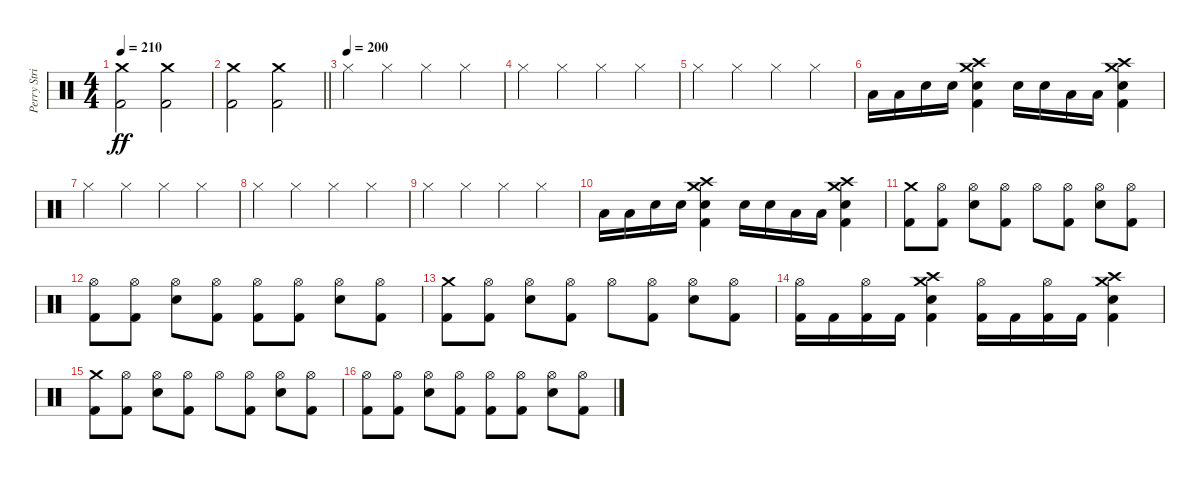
\track ("Perry Strickland" "Perry Stri") {instrument percussion}
\staff {score}
\articulation defaults
\ts (4 4)
\tempo 210
\clef neutral
\ks c
("Crash medium (hit)" "Kick (hit) 2").2{dy ff} ("Crash medium (hit)" "Kick (hit) 2").2 |
\barLineRight lightlight
("Crash medium (hit)" "Kick (hit) 2").2 ("Crash medium (hit)" "Kick (hit) 2").2 |
\tempo (200)
"Hi-Hat (closed)".4 "Hi-Hat (closed)".4 "Hi-Hat (closed)".4 "Hi-Hat (closed)".4 |
"Hi-Hat (closed)".4 "Hi-Hat (closed)".4 "Hi-Hat (closed)".4 "Hi-Hat (closed)".4 |
"Hi-Hat (closed)".4 "Hi-Hat (closed)".4 "Hi-Hat (closed)".4 "Hi-Hat (closed)".4 |
"Low Tom (hit)".16 "Low Tom (hit)".16 "Snare (hit) 2".16 "Snare (hit) 2".16 ("Crash high (hit)" "Crash medium (hit)" "Snare (hit) 2" "Kick (hit) 2").4 "Snare (hit) 2".16 "Snare (hit) 2".16 "Low Tom (hit)".16 "Low Tom (hit)".16 ("Crash high (hit)" "Crash medium (hit)" "Snare (hit) 2" "Kick (hit) 2").4 |
"Hi-Hat (closed)".4 "Hi-Hat (closed)".4 "Hi-Hat (closed)".4 "Hi-Hat (closed)".4 |
"Hi-Hat (closed)".4 "Hi-Hat (closed)".4 "Hi-Hat (closed)".4 "Hi-Hat (closed)".4 |
"Hi-Hat (closed)".4 "Hi-Hat (closed)".4 "Hi-Hat (closed)".4 "Hi-Hat (closed)".4 |
"Low Tom (hit)".16 "Low Tom (hit)".16 "Snare (hit) 2".16 "Snare (hit) 2".16 ("Crash high (hit)" "Crash medium (hit)" "Snare (hit) 2" "Kick (hit) 2").4 "Snare (hit) 2".16 "Snare (hit) 2".16 "Low Tom (hit)".16 "Low Tom (hit)".16 ("Crash high (hit)" "Crash medium (hit)" "Snare (hit) 2" "Kick (hit) 2").4 |
("Crash medium (hit)" "Kick (hit) 2").8 ("Hi-Hat (open)" "Kick (hit) 2").8 ("Hi-Hat (open)" "Snare (hit) 2").8 ("Hi-Hat (open)" "Kick (hit) 2").8 "Hi-Hat (open)".8 ("Hi-Hat (open)" "Kick (hit) 2").8 ("Hi-Hat (open)" "Snare (hit) 2").8 ("Hi-Hat (open)" "Kick (hit) 2").8 |
("Hi-Hat (open)" "Kick (hit) 2").8 ("Hi-Hat (open)" "Kick (hit) 2").8 ("Hi-Hat (open)" "Snare (hit) 2").8 ("Hi-Hat (open)" "Kick (hit) 2").8 ("Hi-Hat (open)" "Kick (hit) 2").8 ("Hi-Hat (open)" "Kick (hit) 2").8 ("Hi-Hat (open)" "Snare (hit) 2").8 ("Hi-Hat (open)" "Kick (hit) 2").8 |
("Crash medium (hit)" "Kick (hit) 2").8 ("Hi-Hat (open)" "Kick (hit) 2").8 ("Hi-Hat (open)" "Snare (hit) 2").8 ("Hi-Hat (open)" "Kick (hit) 2").8 "Hi-Hat (open)".8 ("Hi-Hat (open)" "Kick (hit) 2").8 ("Hi-Hat (open)" "Snare (hit) 2").8 ("Hi-Hat (open)" "Kick (hit) 2").8 |
("Hi-Hat (open)" "Kick (hit) 2").16 "Kick (hit) 2".16 ("Hi-Hat (open)" "Kick (hit) 2").16 "Kick (hit) 2".16 ("Crash high (hit)" "Crash medium (hit)" "Snare (hit) 2" "Kick (hit) 2").4 ("Hi-Hat (open)" "Kick (hit) 2").16 "Kick (hit) 2".16 ("Hi-Hat (open)" "Kick (hit) 2").16 "Kick (hit) 2".16 ("Crash high (hit)" "Crash medium (hit)" "Snare (hit) 2" "Kick (hit) 2").4 |
("Crash medium (hit)" "Kick (hit) 2").8 ("Hi-Hat (open)" "Kick (hit) 2").8 ("Hi-Hat (open)" "Snare (hit) 2").8 ("Hi-Hat (open)" "Kick (hit) 2").8 "Hi-Hat (open)".8 ("Hi-Hat (open)" "Kick (hit) 2").8 ("Hi-Hat (open)" "Snare (hit) 2").8 ("Hi-Hat (open)" "Kick (hit) 2").8 |
("Hi-Hat (open)" "Kick (hit) 2").8 ("Hi-Hat (open)" "Kick (hit) 2").8 ("Hi-Hat (open)" "Snare (hit) 2").8 ("Hi-Hat (open)" "Kick (hit) 2").8 ("Hi-Hat (open)" "Kick (hit) 2").8 ("Hi-Hat (open)" "Kick (hit) 2").8 ("Hi-Hat (open)" "Snare (hit) 2").8 ("Hi-Hat (open)" "Kick (hit) 2").8
